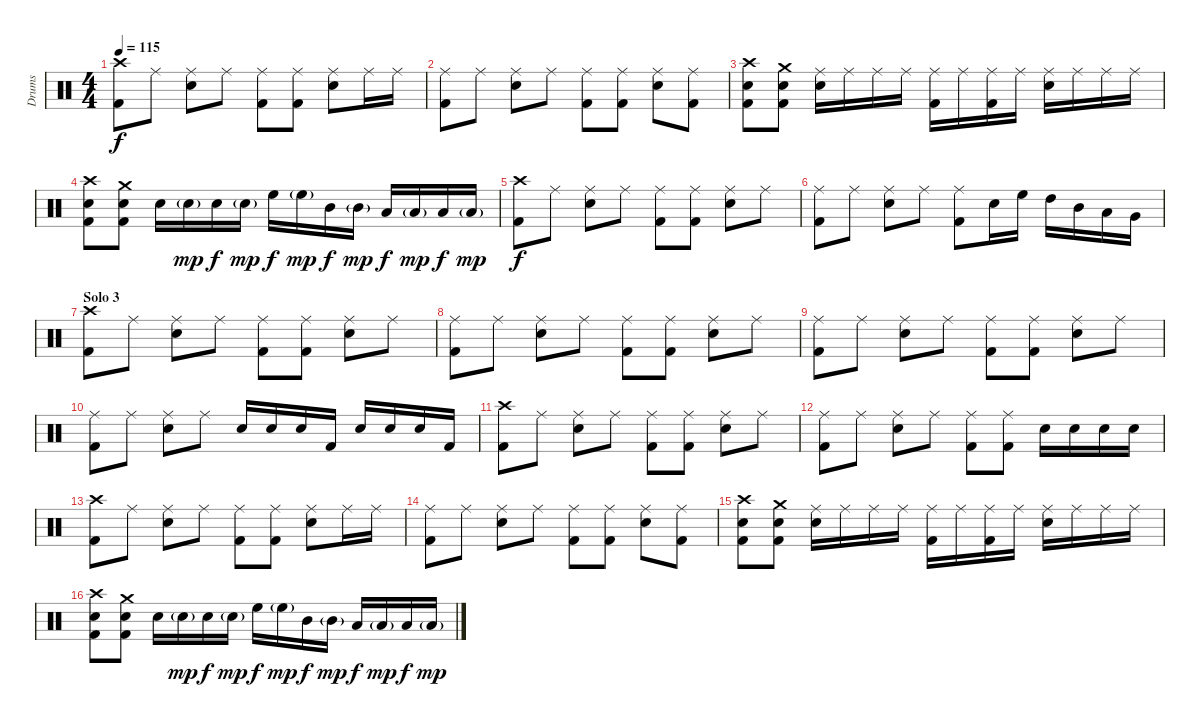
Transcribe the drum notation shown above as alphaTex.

\track ("Drums" "Drums") {instrument percussion}
\staff {score}
\articulation defaults
\ts (4 4)
\tempo 115
\clef neutral
\ks c
("Crash high (hit)" "Kick (hit) 2").8{dy f} "Ride (middle)".8 ("Ride (middle)" "Electric Snare (hit)").8 "Ride (middle)".8 ("Ride (middle)" "Kick (hit) 2").8 ("Ride (middle)" "Kick (hit) 2").8 ("Ride (middle)" "Electric Snare (hit)").8 "Ride (middle)".16 "Ride (middle)".16 |
("Ride (middle)" "Kick (hit) 2").8 "Ride (middle)".8 ("Ride (middle)" "Electric Snare (hit)").8 "Ride (middle)".8 ("Ride (middle)" "Kick (hit) 2").8 ("Ride (middle)" "Kick (hit) 2").8 ("Ride (middle)" "Electric Snare (hit)").8 ("Ride (middle)" "Kick (hit) 2").8 |
("Crash high (hit)" "Kick (hit) 2" "Electric Snare (hit)").8 ("Crash medium (hit)" "Kick (hit) 2" "Electric Snare (hit)").8 ("Ride (middle)" "Electric Snare (hit)").16 "Ride (middle)".16 "Ride (middle)".16 "Ride (middle)".16 ("Ride (middle)" "Kick (hit) 2").16 "Ride (middle)".16 ("Ride (middle)" "Kick (hit) 2").16 "Ride (middle)".16 ("Ride (middle)" "Electric Snare (hit)").16 "Ride (middle)".16 "Ride (middle)".16 "Ride (middle)".16 |
("Crash high (hit)" "Kick (hit) 2" "Electric Snare (hit)").8 ("Crash medium (hit)" "Kick (hit) 2" "Electric Snare (hit)").8 "Electric Snare (hit)".16 "Electric Snare (hit)"{g}.16{dy mp} "Electric Snare (hit)".16{dy f} "Electric Snare (hit)"{g}.16{dy mp} "High Floor Tom (hit)".16{dy f} "High Floor Tom (hit)"{g}.16{dy mp} "Mid Tom (hit)".16{dy f} "Mid Tom (hit)"{g}.16{dy mp} "Low Tom (hit)".16{dy f} "Low Tom (hit)"{g}.16{dy mp} "Low Floor Tom (hit)".16{dy f} "Low Floor Tom (hit)"{g}.16{dy mp} |
("Crash high (hit)" "Kick (hit) 2").8{dy f} "Ride (middle)".8 ("Ride (middle)" "Electric Snare (hit)").8 "Ride (middle)".8 ("Ride (middle)" "Kick (hit) 2").8 ("Ride (middle)" "Kick (hit) 2").8 ("Ride (middle)" "Electric Snare (hit)").8 "Ride (middle)".8 |
("Ride (middle)" "Kick (hit) 2").8 "Ride (middle)".8 ("Ride (middle)" "Electric Snare (hit)").8 "Ride (middle)".8 ("Ride (middle)" "Kick (hit) 2").8 "Electric Snare (hit)".16 "High Floor Tom (hit)".16 "High Tom (hit)".16 "Mid Tom (hit)".16 "Low Tom (hit)".16 "Very Low Tom (hit)".16 |
\section ("" "Solo 3")
("Crash high (hit)" "Kick (hit) 2").8 "Ride (middle)".8 ("Ride (middle)" "Electric Snare (hit)").8 "Ride (middle)".8 ("Ride (middle)" "Kick (hit) 2").8 ("Ride (middle)" "Kick (hit) 2").8 ("Ride (middle)" "Electric Snare (hit)").8 "Ride (middle)".8 |
("Ride (middle)" "Kick (hit) 2").8 "Ride (middle)".8 ("Ride (middle)" "Electric Snare (hit)").8 "Ride (middle)".8 ("Ride (middle)" "Kick (hit) 2").8 ("Ride (middle)" "Kick (hit) 2").8 ("Ride (middle)" "Electric Snare (hit)").8 "Ride (middle)".8 |
("Ride (middle)" "Kick (hit) 2").8 "Ride (middle)".8 ("Ride (middle)" "Electric Snare (hit)").8 "Ride (middle)".8 ("Ride (middle)" "Kick (hit) 2").8 ("Ride (middle)" "Kick (hit) 2").8 ("Ride (middle)" "Electric Snare (hit)").8 "Ride (middle)".8 |
("Ride (middle)" "Kick (hit) 2").8 "Ride (middle)".8 ("Ride (middle)" "Electric Snare (hit)").8 "Ride (middle)".8 "Electric Snare (hit)".16 "Electric Snare (hit)".16 "Electric Snare (hit)".16 "Kick (hit) 2".16 "Electric Snare (hit)".16 "Electric Snare (hit)".16 "Electric Snare (hit)".16 "Kick (hit) 2".16 |
("Crash high (hit)" "Kick (hit) 2").8 "Ride (middle)".8 ("Ride (middle)" "Electric Snare (hit)").8 "Ride (middle)".8 ("Ride (middle)" "Kick (hit) 2").8 ("Ride (middle)" "Kick (hit) 2").8 ("Ride (middle)" "Electric Snare (hit)").8 "Ride (middle)".8 |
("Ride (middle)" "Kick (hit) 2").8 "Ride (middle)".8 ("Ride (middle)" "Electric Snare (hit)").8 "Ride (middle)".8 ("Ride (middle)" "Kick (hit) 2").8 ("Ride (middle)" "Kick (hit) 2").8 "Electric Snare (hit)".16 "Electric Snare (hit)".16 "Electric Snare (hit)".16 "Electric Snare (hit)".16 |
("Crash high (hit)" "Kick (hit) 2").8 "Ride (middle)".8 ("Ride (middle)" "Electric Snare (hit)").8 "Ride (middle)".8 ("Ride (middle)" "Kick (hit) 2").8 ("Ride (middle)" "Kick (hit) 2").8 ("Ride (middle)" "Electric Snare (hit)").8 "Ride (middle)".16 "Ride (middle)".16 |
("Ride (middle)" "Kick (hit) 2").8 "Ride (middle)".8 ("Ride (middle)" "Electric Snare (hit)").8 "Ride (middle)".8 ("Ride (middle)" "Kick (hit) 2").8 ("Ride (middle)" "Kick (hit) 2").8 ("Ride (middle)" "Electric Snare (hit)").8 ("Ride (middle)" "Kick (hit) 2").8 |
("Crash high (hit)" "Kick (hit) 2" "Electric Snare (hit)").8 ("Crash medium (hit)" "Kick (hit) 2" "Electric Snare (hit)").8 ("Ride (middle)" "Electric Snare (hit)").16 "Ride (middle)".16 "Ride (middle)".16 "Ride (middle)".16 ("Ride (middle)" "Kick (hit) 2").16 "Ride (middle)".16 ("Ride (middle)" "Kick (hit) 2").16 "Ride (middle)".16 ("Ride (middle)" "Electric Snare (hit)").16 "Ride (middle)".16 "Ride (middle)".16 "Ride (middle)".16 |
("Crash high (hit)" "Kick (hit) 2" "Electric Snare (hit)").8 ("Crash medium (hit)" "Kick (hit) 2" "Electric Snare (hit)").8 "Electric Snare (hit)".16 "Electric Snare (hit)"{g}.16{dy mp} "Electric Snare (hit)".16{dy f} "Electric Snare (hit)"{g}.16{dy mp} "High Floor Tom (hit)".16{dy f} "High Floor Tom (hit)"{g}.16{dy mp} "Mid Tom (hit)".16{dy f} "Mid Tom (hit)"{g}.16{dy mp} "Low Tom (hit)".16{dy f} "Low Tom (hit)"{g}.16{dy mp} "Low Floor Tom (hit)".16{dy f} "Low Floor Tom (hit)"{g}.16{dy mp}
